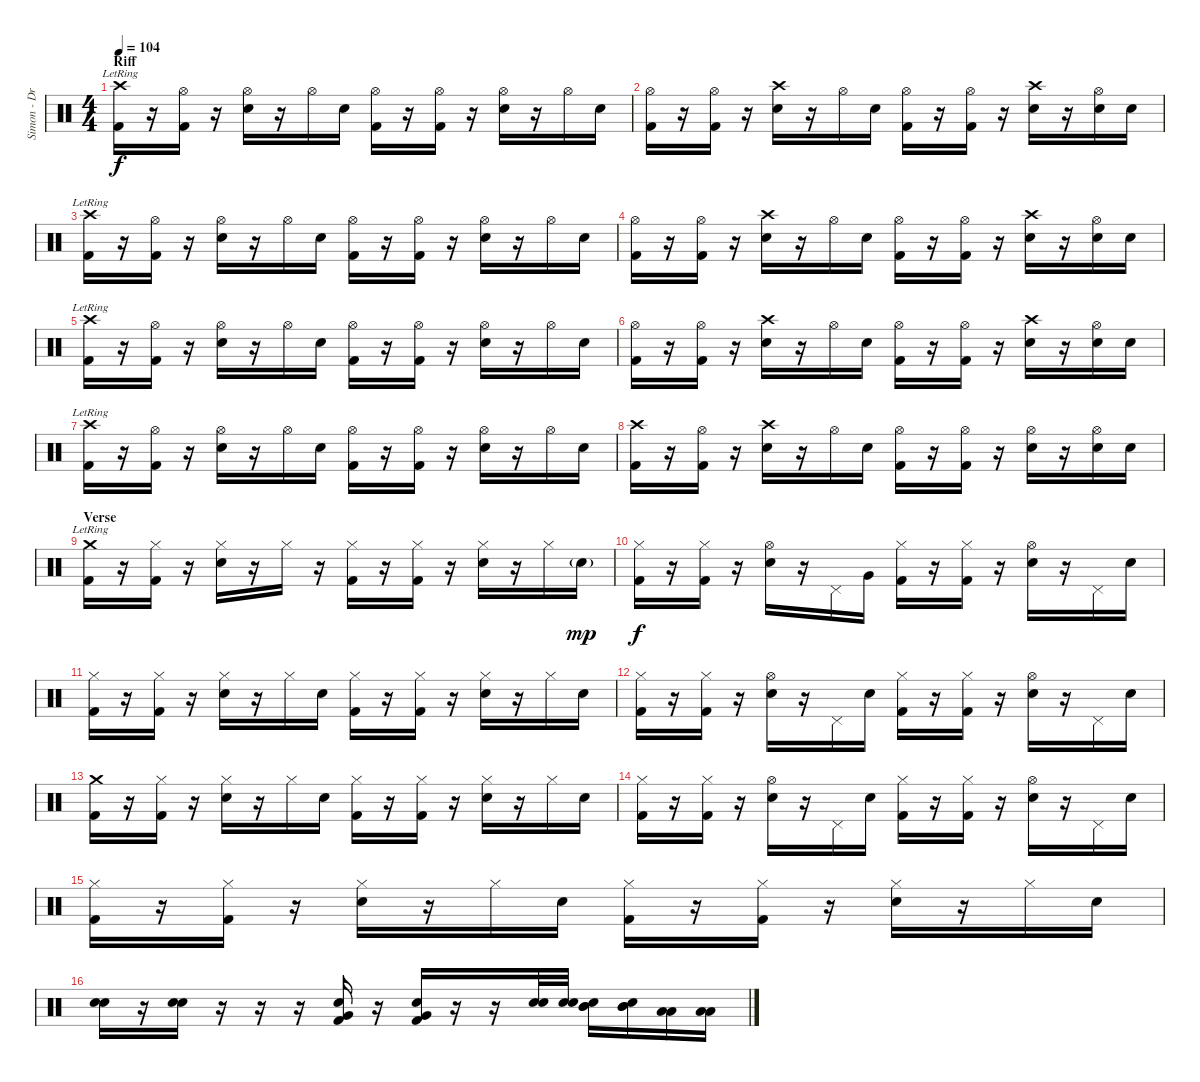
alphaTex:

\track ("Simon - Drums" "Simon - Dr") {instrument percussion}
\staff {score}
\articulation defaults
\ts (4 4)
\section ("" "Riff")
\tempo 104
\clef neutral
\ks c
("Crash high (hit)"{lr} "Kick (hit) 2").16{dy f} r.16 ("Hi-Hat (open)" "Kick (hit) 2").16 r.16 ("Hi-Hat (open)" "Electric Snare (hit)").16 r.16 "Hi-Hat (open)".16 "Electric Snare (hit)".16 ("Hi-Hat (open)" "Kick (hit) 2").16 r.16 ("Hi-Hat (open)" "Kick (hit) 2").16 r.16 ("Hi-Hat (open)" "Electric Snare (hit)").16 r.16 "Hi-Hat (open)".16 "Electric Snare (hit)".16 |
("Hi-Hat (open)" "Kick (hit) 2").16 r.16 ("Hi-Hat (open)" "Kick (hit) 2").16 r.16 ("Crash high (hit)" "Electric Snare (hit)").16 r.16 "Hi-Hat (open)".16 "Electric Snare (hit)".16 ("Hi-Hat (open)" "Kick (hit) 2").16 r.16 ("Hi-Hat (open)" "Kick (hit) 2").16 r.16 ("Crash high (hit)" "Electric Snare (hit)").16 r.16 ("Hi-Hat (open)" "Electric Snare (hit)").16 "Electric Snare (hit)".16 |
("Crash high (hit)"{lr} "Kick (hit) 2").16 r.16 ("Hi-Hat (open)" "Kick (hit) 2").16 r.16 ("Hi-Hat (open)" "Electric Snare (hit)").16 r.16 "Hi-Hat (open)".16 "Electric Snare (hit)".16 ("Hi-Hat (open)" "Kick (hit) 2").16 r.16 ("Hi-Hat (open)" "Kick (hit) 2").16 r.16 ("Hi-Hat (open)" "Electric Snare (hit)").16 r.16 "Hi-Hat (open)".16 "Electric Snare (hit)".16 |
("Hi-Hat (open)" "Kick (hit) 2").16 r.16 ("Hi-Hat (open)" "Kick (hit) 2").16 r.16 ("Crash high (hit)" "Electric Snare (hit)").16 r.16 "Hi-Hat (open)".16 "Electric Snare (hit)".16 ("Hi-Hat (open)" "Kick (hit) 2").16 r.16 ("Hi-Hat (open)" "Kick (hit) 2").16 r.16 ("Crash high (hit)" "Electric Snare (hit)").16 r.16 ("Hi-Hat (open)" "Electric Snare (hit)").16 "Electric Snare (hit)".16 |
("Crash high (hit)"{lr} "Kick (hit) 2").16 r.16 ("Hi-Hat (open)" "Kick (hit) 2").16 r.16 ("Hi-Hat (open)" "Electric Snare (hit)").16 r.16 "Hi-Hat (open)".16 "Electric Snare (hit)".16 ("Hi-Hat (open)" "Kick (hit) 2").16 r.16 ("Hi-Hat (open)" "Kick (hit) 2").16 r.16 ("Hi-Hat (open)" "Electric Snare (hit)").16 r.16 "Hi-Hat (open)".16 "Electric Snare (hit)".16 |
("Hi-Hat (open)" "Kick (hit) 2").16 r.16 ("Hi-Hat (open)" "Kick (hit) 2").16 r.16 ("Crash high (hit)" "Electric Snare (hit)").16 r.16 "Hi-Hat (open)".16 "Electric Snare (hit)".16 ("Hi-Hat (open)" "Kick (hit) 2").16 r.16 ("Hi-Hat (open)" "Kick (hit) 2").16 r.16 ("Crash high (hit)" "Electric Snare (hit)").16 r.16 ("Hi-Hat (open)" "Electric Snare (hit)").16 "Electric Snare (hit)".16 |
("Crash high (hit)"{lr} "Kick (hit) 2").16 r.16 ("Hi-Hat (open)" "Kick (hit) 2").16 r.16 ("Hi-Hat (open)" "Electric Snare (hit)").16 r.16 "Hi-Hat (open)".16 "Electric Snare (hit)".16 ("Hi-Hat (open)" "Kick (hit) 2").16 r.16 ("Hi-Hat (open)" "Kick (hit) 2").16 r.16 ("Hi-Hat (open)" "Electric Snare (hit)").16 r.16 "Hi-Hat (open)".16 "Electric Snare (hit)".16 |
("Crash high (hit)" "Kick (hit) 2").16 r.16 ("Hi-Hat (open)" "Kick (hit) 2").16 r.16 ("Crash high (hit)" "Electric Snare (hit)").16 r.16 "Hi-Hat (open)".16 "Electric Snare (hit)".16 ("Hi-Hat (open)" "Kick (hit) 2").16 r.16 ("Hi-Hat (open)" "Kick (hit) 2").16 r.16 ("Hi-Hat (open)" "Electric Snare (hit)").16 r.16 ("Hi-Hat (open)" "Electric Snare (hit)").16 "Electric Snare (hit)".16 |
\section ("" "Verse")
("Crash medium (hit)"{lr} "Kick (hit) 2").16 r.16 ("Hi-Hat (closed)" "Kick (hit) 2").16 r.16 ("Hi-Hat (closed)" "Electric Snare (hit)").16 r.16 "Hi-Hat (closed)".16 r.16 ("Hi-Hat (closed)" "Kick (hit) 2").16 r.16 ("Hi-Hat (closed)" "Kick (hit) 2").16 r.16 ("Hi-Hat (closed)" "Electric Snare (hit)").16 r.16 "Hi-Hat (closed)".16 "Electric Snare (hit)"{g}.16{dy mp} |
("Hi-Hat (closed)" "Kick (hit) 2").16{dy f} r.16 ("Hi-Hat (closed)" "Kick (hit) 2").16 r.16 ("Hi-Hat (open)" "Electric Snare (hit)").16 r.16 "Pedal Hi-Hat (hit)".16 "Very Low Tom (hit)".16 ("Hi-Hat (closed)" "Kick (hit) 2").16 r.16 ("Hi-Hat (closed)" "Kick (hit) 2").16 r.16 ("Hi-Hat (open)" "Electric Snare (hit)").16 r.16 "Pedal Hi-Hat (hit)".16 "Electric Snare (hit)".16 |
("Hi-Hat (closed)" "Kick (hit) 2").16 r.16 ("Hi-Hat (closed)" "Kick (hit) 2").16 r.16 ("Hi-Hat (closed)" "Electric Snare (hit)").16 r.16 "Hi-Hat (closed)".16 "Electric Snare (hit)".16 ("Hi-Hat (closed)" "Kick (hit) 2").16 r.16 ("Hi-Hat (closed)" "Kick (hit) 2").16 r.16 ("Hi-Hat (closed)" "Electric Snare (hit)").16 r.16 "Hi-Hat (closed)".16 "Electric Snare (hit)".16 |
("Hi-Hat (closed)" "Kick (hit) 2").16 r.16 ("Hi-Hat (closed)" "Kick (hit) 2").16 r.16 ("Hi-Hat (open)" "Electric Snare (hit)").16 r.16 "Pedal Hi-Hat (hit)".16 "Electric Snare (hit)".16 ("Hi-Hat (closed)" "Kick (hit) 2").16 r.16 ("Hi-Hat (closed)" "Kick (hit) 2").16 r.16 ("Hi-Hat (open)" "Electric Snare (hit)").16 r.16 "Pedal Hi-Hat (hit)".16 "Electric Snare (hit)".16 |
("Crash medium (hit)" "Kick (hit) 2").16 r.16 ("Hi-Hat (closed)" "Kick (hit) 2").16 r.16 ("Hi-Hat (closed)" "Electric Snare (hit)").16 r.16 "Hi-Hat (closed)".16 "Electric Snare (hit)".16 ("Hi-Hat (closed)" "Kick (hit) 2").16 r.16 ("Hi-Hat (closed)" "Kick (hit) 2").16 r.16 ("Hi-Hat (closed)" "Electric Snare (hit)").16 r.16 "Hi-Hat (closed)".16 "Electric Snare (hit)".16 |
("Hi-Hat (closed)" "Kick (hit) 2").16 r.16 ("Hi-Hat (closed)" "Kick (hit) 2").16 r.16 ("Hi-Hat (open)" "Electric Snare (hit)").16 r.16 "Pedal Hi-Hat (hit)".16 "Electric Snare (hit)".16 ("Hi-Hat (closed)" "Kick (hit) 2").16 r.16 ("Hi-Hat (closed)" "Kick (hit) 2").16 r.16 ("Hi-Hat (open)" "Electric Snare (hit)").16 r.16 "Pedal Hi-Hat (hit)".16 "Electric Snare (hit)".16 |
("Hi-Hat (closed)" "Kick (hit) 2").16 r.16 ("Hi-Hat (closed)" "Kick (hit) 2").16 r.16 ("Hi-Hat (closed)" "Electric Snare (hit)").16 r.16 "Hi-Hat (closed)".16 "Electric Snare (hit)".16 ("Hi-Hat (closed)" "Kick (hit) 2").16 r.16 ("Hi-Hat (closed)" "Kick (hit) 2").16 r.16 ("Hi-Hat (closed)" "Electric Snare (hit)").16 r.16 "Hi-Hat (closed)".16 "Electric Snare (hit)".16 |
("Electric Snare (hit)" "Electric Snare (hit)").16 r.16 ("Electric Snare (hit)" "Electric Snare (hit)").16 r.16 r.16 r.16 ("Very Low Tom (hit)" "Electric Snare (hit)" "Kick (hit) 2").16 r.16 ("Very Low Tom (hit)" "Electric Snare (hit)" "Kick (hit) 2").16 r.16 r.16 ("Electric Snare (hit)" "Electric Snare (hit)").32 ("Electric Snare (hit)" "Electric Snare (hit)").32 ("Mid Tom (hit)" "Mid Tom (hit)" "Electric Snare (hit)").16 ("Mid Tom (hit)" "Mid Tom (hit)" "Electric Snare (hit)").16 ("Low Tom (hit)" "Low Tom (hit)").16 ("Low Tom (hit)" "Low Tom (hit)").16
